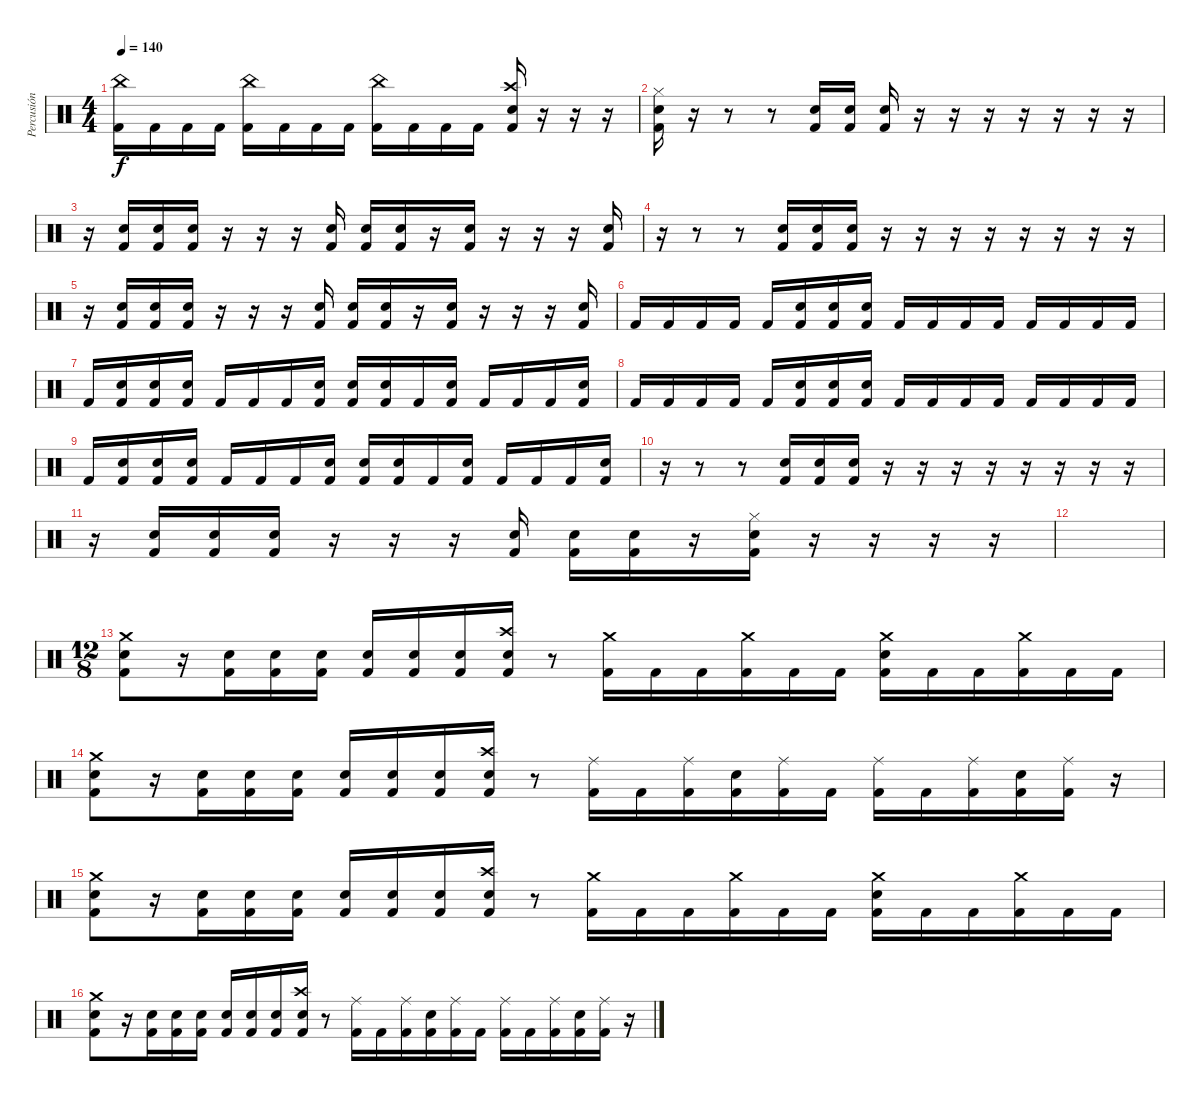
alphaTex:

\track ("Percusión" "Percusión") {instrument percussion}
\staff {score}
\articulation defaults
\ts (4 4)
\tempo 140
\clef neutral
\ks c
("China (hit)" "Kick (hit) 2").16{dy f} "Kick (hit) 2".16 "Kick (hit) 2".16 "Kick (hit) 2".16 ("China (hit)" "Kick (hit) 2").16 "Kick (hit) 2".16 "Kick (hit) 2".16 "Kick (hit) 2".16 ("China (hit)" "Kick (hit) 2").16 "Kick (hit) 2".16 "Kick (hit) 2".16 "Kick (hit) 2".16 ("Crash high (hit)" "Electric Snare (hit)" "Kick (hit) 2").16 r.16 r.16 r.16 |
("Hi-Hat (closed)" "Electric Snare (hit)" "Kick (hit) 2").16 r.16 r.8 r.8 ("Electric Snare (hit)" "Kick (hit) 2").16 ("Electric Snare (hit)" "Kick (hit) 2").16 ("Electric Snare (hit)" "Kick (hit) 2").16 r.16 r.16 r.16 r.16 r.16 r.16 r.16 |
r.16 ("Electric Snare (hit)" "Kick (hit) 2").16 ("Electric Snare (hit)" "Kick (hit) 2").16 ("Electric Snare (hit)" "Kick (hit) 2").16 r.16 r.16 r.16 ("Electric Snare (hit)" "Kick (hit) 2").16 ("Electric Snare (hit)" "Kick (hit) 2").16 ("Electric Snare (hit)" "Kick (hit) 2").16 r.16 ("Electric Snare (hit)" "Kick (hit) 2").16 r.16 r.16 r.16 ("Electric Snare (hit)" "Kick (hit) 2").16 |
r.16 r.8 r.8 ("Electric Snare (hit)" "Kick (hit) 2").16 ("Electric Snare (hit)" "Kick (hit) 2").16 ("Electric Snare (hit)" "Kick (hit) 2").16 r.16 r.16 r.16 r.16 r.16 r.16 r.16 r.16 |
r.16 ("Electric Snare (hit)" "Kick (hit) 2").16 ("Electric Snare (hit)" "Kick (hit) 2").16 ("Electric Snare (hit)" "Kick (hit) 2").16 r.16 r.16 r.16 ("Electric Snare (hit)" "Kick (hit) 2").16 ("Electric Snare (hit)" "Kick (hit) 2").16 ("Electric Snare (hit)" "Kick (hit) 2").16 r.16 ("Electric Snare (hit)" "Kick (hit) 2").16 r.16 r.16 r.16 ("Electric Snare (hit)" "Kick (hit) 2").16 |
"Kick (hit) 2".16 "Kick (hit) 2".16 "Kick (hit) 2".16 "Kick (hit) 2".16 "Kick (hit) 2".16 ("Electric Snare (hit)" "Kick (hit) 2").16 ("Electric Snare (hit)" "Kick (hit) 2").16 ("Electric Snare (hit)" "Kick (hit) 2").16 "Kick (hit) 2".16 "Kick (hit) 2".16 "Kick (hit) 2".16 "Kick (hit) 2".16 "Kick (hit) 2".16 "Kick (hit) 2".16 "Kick (hit) 2".16 "Kick (hit) 2".16 |
"Kick (hit) 2".16 ("Electric Snare (hit)" "Kick (hit) 2").16 ("Electric Snare (hit)" "Kick (hit) 2").16 ("Electric Snare (hit)" "Kick (hit) 2").16 "Kick (hit) 2".16 "Kick (hit) 2".16 "Kick (hit) 2".16 ("Electric Snare (hit)" "Kick (hit) 2").16 ("Electric Snare (hit)" "Kick (hit) 2").16 ("Electric Snare (hit)" "Kick (hit) 2").16 "Kick (hit) 2".16 ("Electric Snare (hit)" "Kick (hit) 2").16 "Kick (hit) 2".16 "Kick (hit) 2".16 "Kick (hit) 2".16 ("Electric Snare (hit)" "Kick (hit) 2").16 |
"Kick (hit) 2".16 "Kick (hit) 2".16 "Kick (hit) 2".16 "Kick (hit) 2".16 "Kick (hit) 2".16 ("Electric Snare (hit)" "Kick (hit) 2").16 ("Electric Snare (hit)" "Kick (hit) 2").16 ("Electric Snare (hit)" "Kick (hit) 2").16 "Kick (hit) 2".16 "Kick (hit) 2".16 "Kick (hit) 2".16 "Kick (hit) 2".16 "Kick (hit) 2".16 "Kick (hit) 2".16 "Kick (hit) 2".16 "Kick (hit) 2".16 |
"Kick (hit) 2".16 ("Electric Snare (hit)" "Kick (hit) 2").16 ("Electric Snare (hit)" "Kick (hit) 2").16 ("Electric Snare (hit)" "Kick (hit) 2").16 "Kick (hit) 2".16 "Kick (hit) 2".16 "Kick (hit) 2".16 ("Electric Snare (hit)" "Kick (hit) 2").16 ("Electric Snare (hit)" "Kick (hit) 2").16 ("Electric Snare (hit)" "Kick (hit) 2").16 "Kick (hit) 2".16 ("Electric Snare (hit)" "Kick (hit) 2").16 "Kick (hit) 2".16 "Kick (hit) 2".16 "Kick (hit) 2".16 ("Electric Snare (hit)" "Kick (hit) 2").16 |
r.16 r.8 r.8 ("Electric Snare (hit)" "Kick (hit) 2").16 ("Electric Snare (hit)" "Kick (hit) 2").16 ("Electric Snare (hit)" "Kick (hit) 2").16 r.16 r.16 r.16 r.16 r.16 r.16 r.16 r.16 |
r.16 ("Electric Snare (hit)" "Kick (hit) 2").16 ("Electric Snare (hit)" "Kick (hit) 2").16 ("Electric Snare (hit)" "Kick (hit) 2").16 r.16 r.16 r.16 ("Electric Snare (hit)" "Kick (hit) 2").16 ("Electric Snare (hit)" "Kick (hit) 2").16 ("Electric Snare (hit)" "Kick (hit) 2").16 r.16 ("Hi-Hat (closed)" "Electric Snare (hit)" "Kick (hit) 2").16 r.16 r.16 r.16 r.16 |
|
\ts (12 8)
("Crash medium (hit)" "Electric Snare (hit)" "Kick (hit) 2").8 r.16 ("Electric Snare (hit)" "Kick (hit) 2").16 ("Electric Snare (hit)" "Kick (hit) 2").16 ("Electric Snare (hit)" "Kick (hit) 2").16 ("Electric Snare (hit)" "Kick (hit) 2").16 ("Electric Snare (hit)" "Kick (hit) 2").16 ("Electric Snare (hit)" "Kick (hit) 2").16 ("Crash high (hit)" "Electric Snare (hit)" "Kick (hit) 2").16 r.8 ("Crash medium (hit)" "Kick (hit) 2").16 "Kick (hit) 2".16 "Kick (hit) 2".16 ("Crash medium (hit)" "Kick (hit) 2").16 "Kick (hit) 2".16 "Kick (hit) 2".16 ("Crash medium (hit)" "Electric Snare (hit)" "Kick (hit) 2").16 "Kick (hit) 2".16 "Kick (hit) 2".16 ("Crash medium (hit)" "Kick (hit) 2").16 "Kick (hit) 2".16 "Kick (hit) 2".16 |
("Crash medium (hit)" "Electric Snare (hit)" "Kick (hit) 2").8 r.16 ("Electric Snare (hit)" "Kick (hit) 2").16 ("Electric Snare (hit)" "Kick (hit) 2").16 ("Electric Snare (hit)" "Kick (hit) 2").16 ("Electric Snare (hit)" "Kick (hit) 2").16 ("Electric Snare (hit)" "Kick (hit) 2").16 ("Electric Snare (hit)" "Kick (hit) 2").16 ("Crash high (hit)" "Electric Snare (hit)" "Kick (hit) 2").16 r.8 ("Ride (middle)" "Kick (hit) 2").16 "Kick (hit) 2".16 ("Ride (middle)" "Kick (hit) 2").16 ("Electric Snare (hit)" "Kick (hit) 2").16 ("Ride (middle)" "Kick (hit) 2").16 "Kick (hit) 2".16 ("Ride (middle)" "Kick (hit) 2").16 "Kick (hit) 2".16 ("Ride (middle)" "Kick (hit) 2").16 ("Electric Snare (hit)" "Kick (hit) 2").16 ("Ride (middle)" "Kick (hit) 2").16 r.16 |
("Crash medium (hit)" "Electric Snare (hit)" "Kick (hit) 2").8 r.16 ("Electric Snare (hit)" "Kick (hit) 2").16 ("Electric Snare (hit)" "Kick (hit) 2").16 ("Electric Snare (hit)" "Kick (hit) 2").16 ("Electric Snare (hit)" "Kick (hit) 2").16 ("Electric Snare (hit)" "Kick (hit) 2").16 ("Electric Snare (hit)" "Kick (hit) 2").16 ("Crash high (hit)" "Electric Snare (hit)" "Kick (hit) 2").16 r.8 ("Crash medium (hit)" "Kick (hit) 2").16 "Kick (hit) 2".16 "Kick (hit) 2".16 ("Crash medium (hit)" "Kick (hit) 2").16 "Kick (hit) 2".16 "Kick (hit) 2".16 ("Crash medium (hit)" "Electric Snare (hit)" "Kick (hit) 2").16 "Kick (hit) 2".16 "Kick (hit) 2".16 ("Crash medium (hit)" "Kick (hit) 2").16 "Kick (hit) 2".16 "Kick (hit) 2".16 |
("Crash medium (hit)" "Electric Snare (hit)" "Kick (hit) 2").8 r.16 ("Electric Snare (hit)" "Kick (hit) 2").16 ("Electric Snare (hit)" "Kick (hit) 2").16 ("Electric Snare (hit)" "Kick (hit) 2").16 ("Electric Snare (hit)" "Kick (hit) 2").16 ("Electric Snare (hit)" "Kick (hit) 2").16 ("Electric Snare (hit)" "Kick (hit) 2").16 ("Crash high (hit)" "Electric Snare (hit)" "Kick (hit) 2").16 r.8 ("Ride (middle)" "Kick (hit) 2").16 "Kick (hit) 2".16 ("Ride (middle)" "Kick (hit) 2").16 ("Electric Snare (hit)" "Kick (hit) 2").16 ("Ride (middle)" "Kick (hit) 2").16 "Kick (hit) 2".16 ("Ride (middle)" "Kick (hit) 2").16 "Kick (hit) 2".16 ("Ride (middle)" "Kick (hit) 2").16 ("Electric Snare (hit)" "Kick (hit) 2").16 ("Ride (middle)" "Kick (hit) 2").16 r.16
